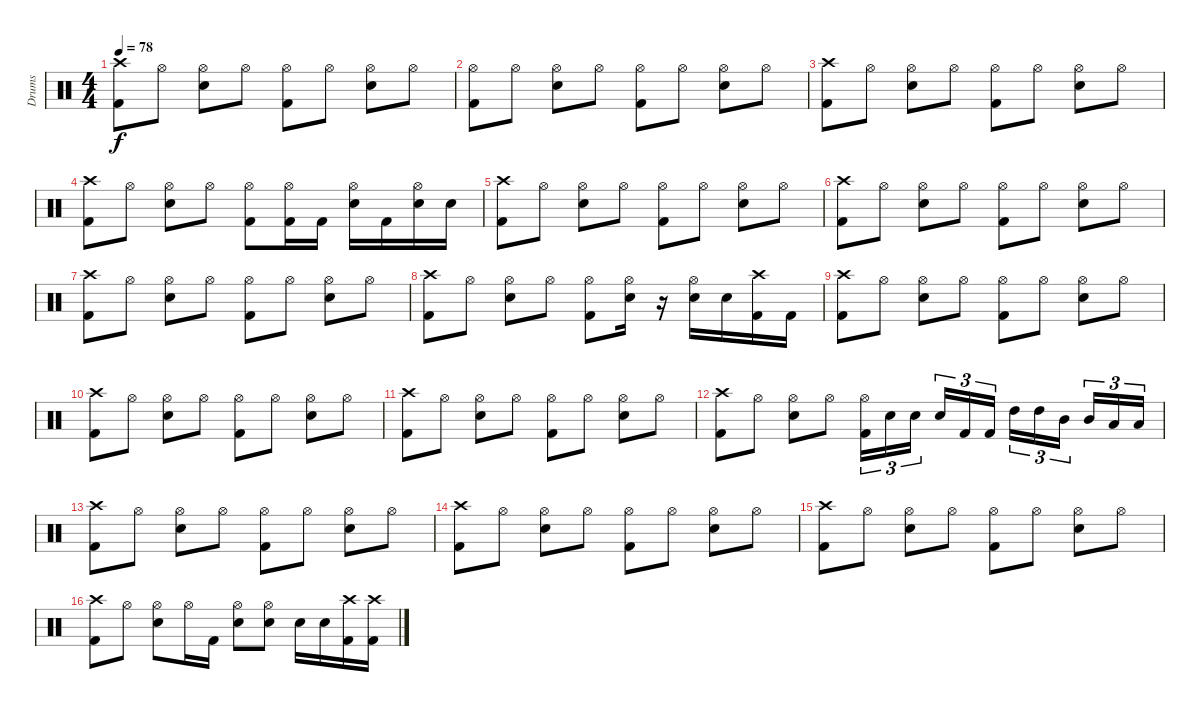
\track ("Drums" "Drums") {instrument percussion}
\staff {score}
\articulation defaults
\ts (4 4)
\tempo 78
\clef neutral
\ks c
("Crash high (hit)" "Kick (hit) 2").8{dy f} "Hi-Hat (open)".8 ("Hi-Hat (open)" "Snare (hit) 2").8 "Hi-Hat (open)".8 ("Hi-Hat (open)" "Kick (hit) 2").8 "Hi-Hat (open)".8 ("Hi-Hat (open)" "Snare (hit) 2").8 "Hi-Hat (open)".8 |
("Hi-Hat (open)" "Kick (hit) 2").8 "Hi-Hat (open)".8 ("Hi-Hat (open)" "Snare (hit) 2").8 "Hi-Hat (open)".8 ("Hi-Hat (open)" "Kick (hit) 2").8 "Hi-Hat (open)".8 ("Hi-Hat (open)" "Snare (hit) 2").8 "Hi-Hat (open)".8 |
("Crash high (hit)" "Kick (hit) 2").8 "Hi-Hat (open)".8 ("Hi-Hat (open)" "Snare (hit) 2").8 "Hi-Hat (open)".8 ("Hi-Hat (open)" "Kick (hit) 2").8 "Hi-Hat (open)".8 ("Hi-Hat (open)" "Snare (hit) 2").8 "Hi-Hat (open)".8 |
("Crash high (hit)" "Kick (hit) 2").8 "Hi-Hat (open)".8 ("Hi-Hat (open)" "Snare (hit) 2").8 "Hi-Hat (open)".8 ("Hi-Hat (open)" "Kick (hit) 2").8 ("Hi-Hat (open)" "Kick (hit) 2").16 "Kick (hit) 2".16 ("Hi-Hat (open)" "Snare (hit) 2").16 "Kick (hit) 2".16 ("Hi-Hat (open)" "Snare (hit) 2").16 "Snare (hit) 2".16 |
("Crash high (hit)" "Kick (hit) 2").8 "Hi-Hat (open)".8 ("Hi-Hat (open)" "Snare (hit) 2").8 "Hi-Hat (open)".8 ("Hi-Hat (open)" "Kick (hit) 2").8 "Hi-Hat (open)".8 ("Hi-Hat (open)" "Snare (hit) 2").8 "Hi-Hat (open)".8 |
("Crash high (hit)" "Kick (hit) 2").8 "Hi-Hat (open)".8 ("Hi-Hat (open)" "Snare (hit) 2").8 "Hi-Hat (open)".8 ("Hi-Hat (open)" "Kick (hit) 2").8 "Hi-Hat (open)".8 ("Hi-Hat (open)" "Snare (hit) 2").8 "Hi-Hat (open)".8 |
("Crash high (hit)" "Kick (hit) 2").8 "Hi-Hat (open)".8 ("Hi-Hat (open)" "Snare (hit) 2").8 "Hi-Hat (open)".8 ("Hi-Hat (open)" "Kick (hit) 2").8 "Hi-Hat (open)".8 ("Hi-Hat (open)" "Snare (hit) 2").8 "Hi-Hat (open)".8 |
("Crash high (hit)" "Kick (hit) 2").8 "Hi-Hat (open)".8 ("Hi-Hat (open)" "Snare (hit) 2").8 "Hi-Hat (open)".8 ("Hi-Hat (open)" "Kick (hit) 2").8 ("Hi-Hat (open)" "Snare (hit) 2").16 r.16 ("Hi-Hat (open)" "Snare (hit) 2").16 "Snare (hit) 2".16 ("Crash high (hit)" "Kick (hit) 2").16 "Kick (hit) 2".16 |
("Crash high (hit)" "Kick (hit) 2").8 "Hi-Hat (open)".8 ("Hi-Hat (open)" "Snare (hit) 2").8 "Hi-Hat (open)".8 ("Hi-Hat (open)" "Kick (hit) 2").8 "Hi-Hat (open)".8 ("Hi-Hat (open)" "Snare (hit) 2").8 "Hi-Hat (open)".8 |
("Crash high (hit)" "Kick (hit) 2").8 "Hi-Hat (open)".8 ("Hi-Hat (open)" "Snare (hit) 2").8 "Hi-Hat (open)".8 ("Hi-Hat (open)" "Kick (hit) 2").8 "Hi-Hat (open)".8 ("Hi-Hat (open)" "Snare (hit) 2").8 "Hi-Hat (open)".8 |
("Crash high (hit)" "Kick (hit) 2").8 "Hi-Hat (open)".8 ("Hi-Hat (open)" "Snare (hit) 2").8 "Hi-Hat (open)".8 ("Hi-Hat (open)" "Kick (hit) 2").8 "Hi-Hat (open)".8 ("Hi-Hat (open)" "Snare (hit) 2").8 "Hi-Hat (open)".8 |
("Crash high (hit)" "Kick (hit) 2").8 "Hi-Hat (open)".8 ("Hi-Hat (open)" "Snare (hit) 2").8 "Hi-Hat (open)".8 ("Hi-Hat (open)" "Kick (hit) 2").16{tu (3 2)} "Snare (hit) 2".16{tu (3 2)} "Snare (hit) 2".16{tu (3 2)} "Snare (hit) 2".16{tu (3 2)} "Kick (hit) 2".16{tu (3 2)} "Kick (hit) 2".16{tu (3 2)} "High Tom (hit)".16{tu (3 2)} "High Tom (hit)".16{tu (3 2)} "Mid Tom (hit)".16{tu (3 2)} "Mid Tom (hit)".16{tu (3 2)} "Low Tom (hit)".16{tu (3 2)} "Low Tom (hit)".16{tu (3 2)} |
("Crash high (hit)" "Kick (hit) 2").8 "Hi-Hat (open)".8 ("Hi-Hat (open)" "Snare (hit) 2").8 "Hi-Hat (open)".8 ("Hi-Hat (open)" "Kick (hit) 2").8 "Hi-Hat (open)".8 ("Hi-Hat (open)" "Snare (hit) 2").8 "Hi-Hat (open)".8 |
("Crash high (hit)" "Kick (hit) 2").8 "Hi-Hat (open)".8 ("Hi-Hat (open)" "Snare (hit) 2").8 "Hi-Hat (open)".8 ("Hi-Hat (open)" "Kick (hit) 2").8 "Hi-Hat (open)".8 ("Hi-Hat (open)" "Snare (hit) 2").8 "Hi-Hat (open)".8 |
("Crash high (hit)" "Kick (hit) 2").8 "Hi-Hat (open)".8 ("Hi-Hat (open)" "Snare (hit) 2").8 "Hi-Hat (open)".8 ("Hi-Hat (open)" "Kick (hit) 2").8 "Hi-Hat (open)".8 ("Hi-Hat (open)" "Snare (hit) 2").8 "Hi-Hat (open)".8 |
("Crash high (hit)" "Kick (hit) 2").8 "Hi-Hat (open)".8 ("Hi-Hat (open)" "Snare (hit) 2").8 "Hi-Hat (open)".16 "Kick (hit) 2".16 ("Hi-Hat (open)" "Snare (hit) 2").8 ("Hi-Hat (open)" "Snare (hit) 2").8 "Snare (hit) 2".16 "Snare (hit) 2".16 ("Crash high (hit)" "Kick (hit) 2").16 ("Crash high (hit)" "Kick (hit) 2").16
